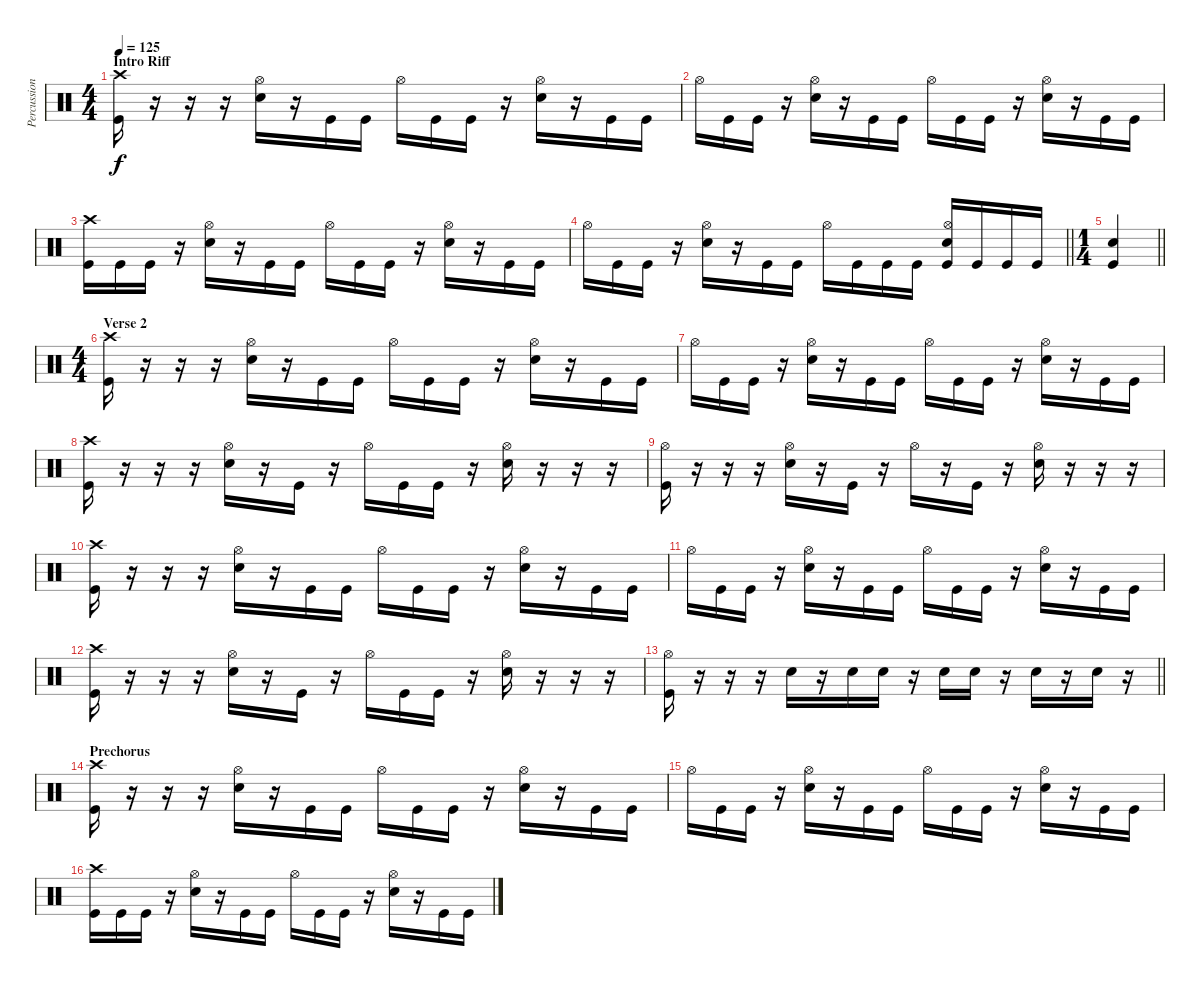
\track ("Percussion" "Percussion") {instrument percussion}
\staff {score}
\articulation defaults
\ts (4 4)
\section ("" "Intro Riff")
\tempo 125
\clef neutral
\ks c
("Crash high (hit)" "Kick (hit)").16{dy f} r.16 r.16 r.16 ("Hi-Hat (open)" "Electric Snare (hit)").16 r.16 "Kick (hit)".16 "Kick (hit)".16 "Hi-Hat (open)".16 "Kick (hit)".16 "Kick (hit)".16 r.16 ("Hi-Hat (open)" "Electric Snare (hit)").16 r.16 "Kick (hit)".16 "Kick (hit)".16 |
"Hi-Hat (open)".16 "Kick (hit)".16 "Kick (hit)".16 r.16 ("Hi-Hat (open)" "Electric Snare (hit)").16 r.16 "Kick (hit)".16 "Kick (hit)".16 "Hi-Hat (open)".16 "Kick (hit)".16 "Kick (hit)".16 r.16 ("Hi-Hat (open)" "Electric Snare (hit)").16 r.16 "Kick (hit)".16 "Kick (hit)".16 |
("Crash high (hit)" "Kick (hit)").16 "Kick (hit)".16 "Kick (hit)".16 r.16 ("Hi-Hat (open)" "Electric Snare (hit)").16 r.16 "Kick (hit)".16 "Kick (hit)".16 "Hi-Hat (open)".16 "Kick (hit)".16 "Kick (hit)".16 r.16 ("Hi-Hat (open)" "Electric Snare (hit)").16 r.16 "Kick (hit)".16 "Kick (hit)".16 |
\barLineRight lightlight "Hi-Hat (open)".16 "Kick (hit)".16 "Kick (hit)".16
r.16 ("Hi-Hat (open)" "Electric Snare (hit)").16 r.16 "Kick (hit)".16 "Kick (hit)".16 "Hi-Hat (open)".16 "Kick (hit)".16 "Kick (hit)".16 "Kick (hit)".16 ("Hi-Hat (open)" "Electric Snare (hit)" "Kick (hit)").16 "Kick (hit)".16 "Kick (hit)".16 "Kick (hit)".16 |
\ts (1 4)
\barLineRight lightlight
("Electric Snare (hit)" "Kick (hit)").4 |
\ts (4 4)
\section ("" "Verse 2")
("Crash high (hit)" "Kick (hit)").16 r.16 r.16 r.16 ("Hi-Hat (open)" "Electric Snare (hit)").16 r.16 "Kick (hit)".16 "Kick (hit)".16 "Hi-Hat (open)".16 "Kick (hit)".16 "Kick (hit)".16 r.16 ("Hi-Hat (open)" "Electric Snare (hit)").16 r.16 "Kick (hit)".16 "Kick (hit)".16 |
"Hi-Hat (open)".16 "Kick (hit)".16 "Kick (hit)".16 r.16 ("Hi-Hat (open)" "Electric Snare (hit)").16 r.16 "Kick (hit)".16 "Kick (hit)".16 "Hi-Hat (open)".16 "Kick (hit)".16 "Kick (hit)".16 r.16 ("Hi-Hat (open)" "Electric Snare (hit)").16 r.16 "Kick (hit)".16 "Kick (hit)".16 |
("Crash high (hit)" "Kick (hit)").16 r.16 r.16 r.16 ("Hi-Hat (open)" "Electric Snare (hit)").16 r.16 "Kick (hit)".16 r.16 "Hi-Hat (open)".16 "Kick (hit)".16 "Kick (hit)".16 r.16 ("Hi-Hat (open)" "Electric Snare (hit)").16 r.16 r.16 r.16 |
("Hi-Hat (open)" "Kick (hit)").16 r.16 r.16 r.16 ("Hi-Hat (open)" "Electric Snare (hit)").16 r.16 "Kick (hit)".16 r.16 "Hi-Hat (open)".16 r.16 "Kick (hit)".16 r.16 ("Hi-Hat (open)" "Electric Snare (hit)").16 r.16 r.16 r.16 |
("Crash high (hit)" "Kick (hit)").16 r.16 r.16 r.16 ("Hi-Hat (open)" "Electric Snare (hit)").16 r.16 "Kick (hit)".16 "Kick (hit)".16 "Hi-Hat (open)".16 "Kick (hit)".16 "Kick (hit)".16 r.16 ("Hi-Hat (open)" "Electric Snare (hit)").16 r.16 "Kick (hit)".16 "Kick (hit)".16 |
"Hi-Hat (open)".16 "Kick (hit)".16 "Kick (hit)".16 r.16 ("Hi-Hat (open)" "Electric Snare (hit)").16 r.16 "Kick (hit)".16 "Kick (hit)".16 "Hi-Hat (open)".16 "Kick (hit)".16 "Kick (hit)".16 r.16 ("Hi-Hat (open)" "Electric Snare (hit)").16 r.16 "Kick (hit)".16 "Kick (hit)".16 |
("Crash high (hit)" "Kick (hit)").16 r.16 r.16 r.16 ("Hi-Hat (open)" "Electric Snare (hit)").16 r.16 "Kick (hit)".16 r.16 "Hi-Hat (open)".16 "Kick (hit)".16 "Kick (hit)".16 r.16 ("Hi-Hat (open)" "Electric Snare (hit)").16 r.16 r.16 r.16 |
\barLineRight lightlight
("Hi-Hat (open)" "Kick (hit)").16 r.16 r.16 r.16 "Electric Snare (hit)".16 r.16 "Electric Snare (hit)".16 "Electric Snare (hit)".16 r.16 "Electric Snare (hit)".16 "Electric Snare (hit)".16 r.16 "Electric Snare (hit)".16 r.16 "Electric Snare (hit)".16 r.16 |
\section ("" "Prechorus")
("Crash high (hit)" "Kick (hit)").16 r.16 r.16 r.16 ("Hi-Hat (open)" "Electric Snare (hit)").16 r.16 "Kick (hit)".16 "Kick (hit)".16 "Hi-Hat (open)".16 "Kick (hit)".16 "Kick (hit)".16 r.16 ("Hi-Hat (open)" "Electric Snare (hit)").16 r.16 "Kick (hit)".16 "Kick (hit)".16 |
"Hi-Hat (open)".16 "Kick (hit)".16 "Kick (hit)".16 r.16 ("Hi-Hat (open)" "Electric Snare (hit)").16 r.16 "Kick (hit)".16 "Kick (hit)".16 "Hi-Hat (open)".16 "Kick (hit)".16 "Kick (hit)".16 r.16 ("Hi-Hat (open)" "Electric Snare (hit)").16 r.16 "Kick (hit)".16 "Kick (hit)".16 |
("Crash high (hit)" "Kick (hit)").16 "Kick (hit)".16 "Kick (hit)".16 r.16 ("Hi-Hat (open)" "Electric Snare (hit)").16 r.16 "Kick (hit)".16 "Kick (hit)".16 "Hi-Hat (open)".16 "Kick (hit)".16 "Kick (hit)".16 r.16 ("Hi-Hat (open)" "Electric Snare (hit)").16 r.16 "Kick (hit)".16 "Kick (hit)".16
